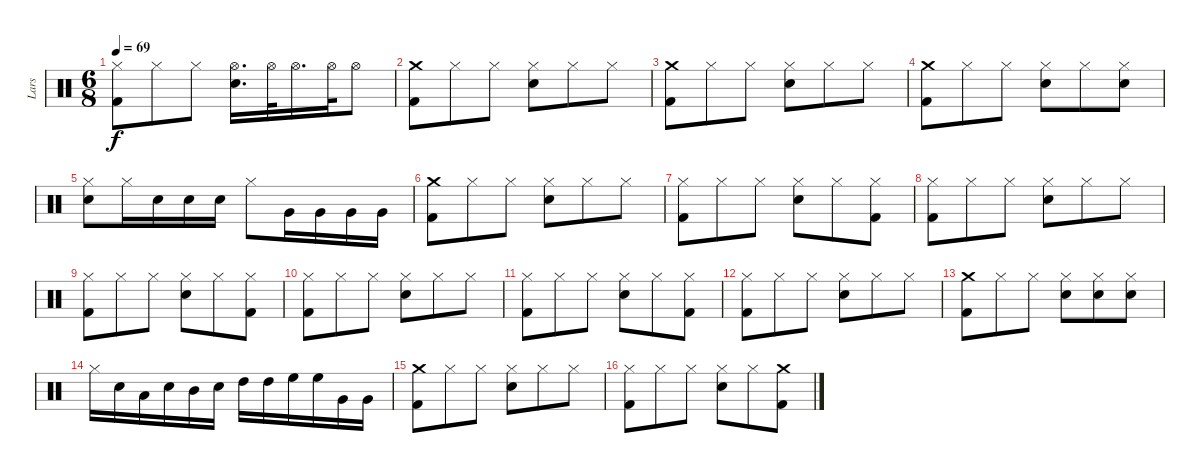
\track ("Lars" "Lars") {instrument percussion}
\staff {score}
\articulation defaults
\ts (6 8)
\tempo 69
\clef neutral
\ks c
("Kick (hit) 2" "Hi-Hat (closed)").8{dy f} "Hi-Hat (closed)".8 "Hi-Hat (closed)".8 ("Snare (hit) 2" "Hi-Hat (open)").16{d} "Hi-Hat (open)".32 "Hi-Hat (open)".16{d} "Hi-Hat (open)".32 "Hi-Hat (open)".8 |
("Kick (hit) 2" "Crash medium (hit)").8 "Hi-Hat (closed)".8 "Hi-Hat (closed)".8 ("Snare (hit) 2" "Hi-Hat (closed)").8 "Hi-Hat (closed)".8 "Hi-Hat (closed)".8 |
("Kick (hit) 2" "Crash medium (hit)").8 "Hi-Hat (closed)".8 "Hi-Hat (closed)".8 ("Snare (hit) 2" "Hi-Hat (closed)").8 "Hi-Hat (closed)".8 "Hi-Hat (closed)".8 |
("Kick (hit) 2" "Crash medium (hit)").8 "Hi-Hat (closed)".8 "Hi-Hat (closed)".8 ("Snare (hit) 2" "Hi-Hat (closed)").8 "Hi-Hat (closed)".8 ("Snare (hit) 2" "Hi-Hat (closed)").8 |
("Snare (hit) 2" "Hi-Hat (closed)").8 "Hi-Hat (closed)".16 "Snare (hit) 2".16 "Snare (hit) 2".16 "Snare (hit) 2".16 "Hi-Hat (closed)".8 "Very Low Tom (hit)".16 "Very Low Tom (hit)".16 "Very Low Tom (hit)".16 "Very Low Tom (hit)".16 |
("Kick (hit) 2" "Crash medium (hit)").8 "Hi-Hat (closed)".8 "Hi-Hat (closed)".8 ("Snare (hit) 2" "Hi-Hat (closed)").8 "Hi-Hat (closed)".8 "Hi-Hat (closed)".8 |
("Kick (hit) 2" "Hi-Hat (closed)").8 "Hi-Hat (closed)".8 "Hi-Hat (closed)".8 ("Snare (hit) 2" "Hi-Hat (closed)").8 "Hi-Hat (closed)".8 ("Kick (hit) 2" "Hi-Hat (closed)").8 |
("Kick (hit) 2" "Hi-Hat (closed)").8 "Hi-Hat (closed)".8 "Hi-Hat (closed)".8 ("Snare (hit) 2" "Hi-Hat (closed)").8 "Hi-Hat (closed)".8 "Hi-Hat (closed)".8 |
("Kick (hit) 2" "Hi-Hat (closed)").8 "Hi-Hat (closed)".8 "Hi-Hat (closed)".8 ("Snare (hit) 2" "Hi-Hat (closed)").8 "Hi-Hat (closed)".8 ("Kick (hit) 2" "Hi-Hat (closed)").8 |
("Kick (hit) 2" "Hi-Hat (closed)").8 "Hi-Hat (closed)".8 "Hi-Hat (closed)".8 ("Snare (hit) 2" "Hi-Hat (closed)").8 "Hi-Hat (closed)".8 "Hi-Hat (closed)".8 |
("Kick (hit) 2" "Hi-Hat (closed)").8 "Hi-Hat (closed)".8 "Hi-Hat (closed)".8 ("Snare (hit) 2" "Hi-Hat (closed)").8 "Hi-Hat (closed)".8 ("Kick (hit) 2" "Hi-Hat (closed)").8 |
("Kick (hit) 2" "Hi-Hat (closed)").8 "Hi-Hat (closed)".8 "Hi-Hat (closed)".8 ("Snare (hit) 2" "Hi-Hat (closed)").8 "Hi-Hat (closed)".8 "Hi-Hat (closed)".8 |
("Kick (hit) 2" "Crash medium (hit)").8 "Hi-Hat (closed)".8 "Hi-Hat (closed)".8 ("Snare (hit) 2" "Hi-Hat (closed)").8 ("Snare (hit) 2" "Hi-Hat (closed)").8 ("Snare (hit) 2" "Hi-Hat (closed)").8 |
"Hi-Hat (closed)".16 "Snare (hit) 2".16 "Low Tom (hit)".16 "Snare (hit) 2".16 "Mid Tom (hit)".16 "Snare (hit) 2".16 "High Tom (hit)".16 "High Tom (hit)".16 "High Floor Tom (hit)".16 "High Floor Tom (hit)".16 "Very Low Tom (hit)".16 "Very Low Tom (hit)".16 |
("Kick (hit) 2" "Crash medium (hit)").8 "Hi-Hat (closed)".8 "Hi-Hat (closed)".8 ("Snare (hit) 2" "Hi-Hat (closed)").8 "Hi-Hat (closed)".8 "Hi-Hat (closed)".8 |
("Kick (hit) 2" "Hi-Hat (closed)").8 "Hi-Hat (closed)".8 "Hi-Hat (closed)".8 ("Snare (hit) 2" "Hi-Hat (closed)").8 "Hi-Hat (closed)".8 ("Kick (hit) 2" "Crash medium (hit)").8
